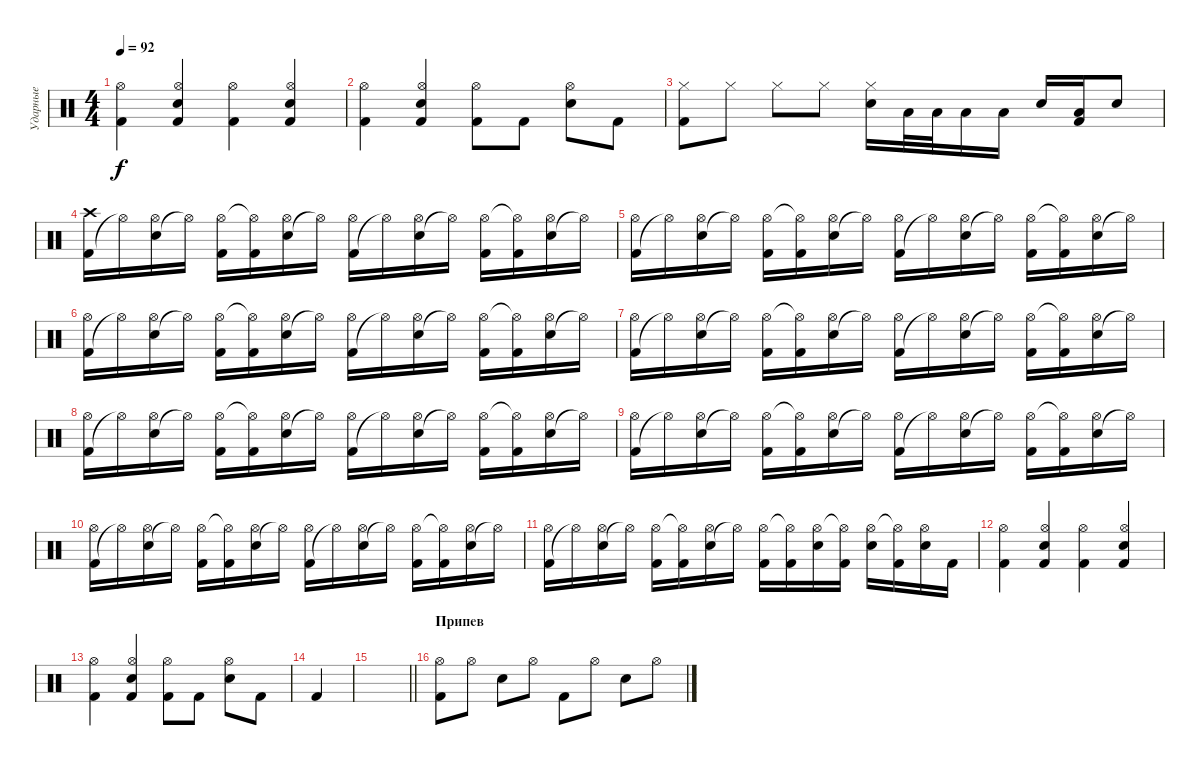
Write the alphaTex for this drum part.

\track ("Ударные" "Ударные") {instrument percussion}
\staff {score}
\articulation defaults
\ts (4 4)
\tempo 92
\clef neutral
\ks c
("Kick (hit) 2" "Hi-Hat (open)").4{dy f} ("Kick (hit) 2" "Snare (hit) 2" "Hi-Hat (open)").4 ("Kick (hit) 2" "Hi-Hat (open)").4 ("Kick (hit) 2" "Snare (hit) 2" "Hi-Hat (open)").4 |
("Kick (hit) 2" "Hi-Hat (open)").4 ("Kick (hit) 2" "Snare (hit) 2" "Hi-Hat (open)").4 ("Kick (hit) 2" "Hi-Hat (open)").8 "Kick (hit) 2".8 ("Snare (hit) 2" "Hi-Hat (open)").8 "Kick (hit) 2".8 |
("Kick (hit) 2" "Hi-Hat (closed)").8 "Hi-Hat (closed)".8 "Hi-Hat (closed)".8 "Hi-Hat (closed)".8 ("Snare (hit) 2" "Hi-Hat (closed)").16 "Low Tom (hit)".32 "Low Tom (hit)".32 "Low Tom (hit)".16 "Low Tom (hit)".16 "Snare (hit) 2".16 ("Kick (hit) 2" "Low Tom (hit)").16 "Snare (hit) 2".8 |
("Kick (hit) 2" "Crash high (hit)").16 "Hi-Hat (open)"{t}.16 ("Snare (hit) 2" "Hi-Hat (open)").16 "Hi-Hat (open)"{t}.16 ("Kick (hit) 2" "Hi-Hat (open)").16 ("Kick (hit) 2" "Hi-Hat (open)"{t}).16 ("Snare (hit) 2" "Hi-Hat (open)").16 "Hi-Hat (open)"{t}.16 ("Kick (hit) 2" "Hi-Hat (open)").16 "Hi-Hat (open)"{t}.16 ("Snare (hit) 2" "Hi-Hat (open)").16 "Hi-Hat (open)"{t}.16 ("Kick (hit) 2" "Hi-Hat (open)").16 ("Kick (hit) 2" "Hi-Hat (open)"{t}).16 ("Snare (hit) 2" "Hi-Hat (open)").16 "Hi-Hat (open)"{t}.16 |
("Kick (hit) 2" "Hi-Hat (open)").16 "Hi-Hat (open)"{t}.16 ("Snare (hit) 2" "Hi-Hat (open)").16 "Hi-Hat (open)"{t}.16 ("Kick (hit) 2" "Hi-Hat (open)").16 ("Kick (hit) 2" "Hi-Hat (open)"{t}).16 ("Snare (hit) 2" "Hi-Hat (open)").16 "Hi-Hat (open)"{t}.16 ("Kick (hit) 2" "Hi-Hat (open)").16 "Hi-Hat (open)"{t}.16 ("Snare (hit) 2" "Hi-Hat (open)").16 "Hi-Hat (open)"{t}.16 ("Kick (hit) 2" "Hi-Hat (open)").16 ("Kick (hit) 2" "Hi-Hat (open)"{t}).16 ("Snare (hit) 2" "Hi-Hat (open)").16 "Hi-Hat (open)"{t}.16 |
("Kick (hit) 2" "Hi-Hat (open)").16 "Hi-Hat (open)"{t}.16 ("Snare (hit) 2" "Hi-Hat (open)").16 "Hi-Hat (open)"{t}.16 ("Kick (hit) 2" "Hi-Hat (open)").16 ("Kick (hit) 2" "Hi-Hat (open)"{t}).16 ("Snare (hit) 2" "Hi-Hat (open)").16 "Hi-Hat (open)"{t}.16 ("Kick (hit) 2" "Hi-Hat (open)").16 "Hi-Hat (open)"{t}.16 ("Snare (hit) 2" "Hi-Hat (open)").16 "Hi-Hat (open)"{t}.16 ("Kick (hit) 2" "Hi-Hat (open)").16 ("Kick (hit) 2" "Hi-Hat (open)"{t}).16 ("Snare (hit) 2" "Hi-Hat (open)").16 "Hi-Hat (open)"{t}.16 |
("Kick (hit) 2" "Hi-Hat (open)").16 "Hi-Hat (open)"{t}.16 ("Snare (hit) 2" "Hi-Hat (open)").16 "Hi-Hat (open)"{t}.16 ("Kick (hit) 2" "Hi-Hat (open)").16 ("Kick (hit) 2" "Hi-Hat (open)"{t}).16 ("Snare (hit) 2" "Hi-Hat (open)").16 "Hi-Hat (open)"{t}.16 ("Kick (hit) 2" "Hi-Hat (open)").16 "Hi-Hat (open)"{t}.16 ("Snare (hit) 2" "Hi-Hat (open)").16 "Hi-Hat (open)"{t}.16 ("Kick (hit) 2" "Hi-Hat (open)").16 ("Kick (hit) 2" "Hi-Hat (open)"{t}).16 ("Snare (hit) 2" "Hi-Hat (open)").16 "Hi-Hat (open)"{t}.16 |
("Kick (hit) 2" "Hi-Hat (open)").16 "Hi-Hat (open)"{t}.16 ("Snare (hit) 2" "Hi-Hat (open)").16 "Hi-Hat (open)"{t}.16 ("Kick (hit) 2" "Hi-Hat (open)").16 ("Kick (hit) 2" "Hi-Hat (open)"{t}).16 ("Snare (hit) 2" "Hi-Hat (open)").16 "Hi-Hat (open)"{t}.16 ("Kick (hit) 2" "Hi-Hat (open)").16 "Hi-Hat (open)"{t}.16 ("Snare (hit) 2" "Hi-Hat (open)").16 "Hi-Hat (open)"{t}.16 ("Kick (hit) 2" "Hi-Hat (open)").16 ("Kick (hit) 2" "Hi-Hat (open)"{t}).16 ("Snare (hit) 2" "Hi-Hat (open)").16 "Hi-Hat (open)"{t}.16 |
("Kick (hit) 2" "Hi-Hat (open)").16 "Hi-Hat (open)"{t}.16 ("Snare (hit) 2" "Hi-Hat (open)").16 "Hi-Hat (open)"{t}.16 ("Kick (hit) 2" "Hi-Hat (open)").16 ("Kick (hit) 2" "Hi-Hat (open)"{t}).16 ("Snare (hit) 2" "Hi-Hat (open)").16 "Hi-Hat (open)"{t}.16 ("Kick (hit) 2" "Hi-Hat (open)").16 "Hi-Hat (open)"{t}.16 ("Snare (hit) 2" "Hi-Hat (open)").16 "Hi-Hat (open)"{t}.16 ("Kick (hit) 2" "Hi-Hat (open)").16 ("Kick (hit) 2" "Hi-Hat (open)"{t}).16 ("Snare (hit) 2" "Hi-Hat (open)").16 "Hi-Hat (open)"{t}.16 |
("Kick (hit) 2" "Hi-Hat (open)").16 "Hi-Hat (open)"{t}.16 ("Snare (hit) 2" "Hi-Hat (open)").16 "Hi-Hat (open)"{t}.16 ("Kick (hit) 2" "Hi-Hat (open)").16 ("Kick (hit) 2" "Hi-Hat (open)"{t}).16 ("Snare (hit) 2" "Hi-Hat (open)").16 "Hi-Hat (open)"{t}.16 ("Kick (hit) 2" "Hi-Hat (open)").16 "Hi-Hat (open)"{t}.16 ("Snare (hit) 2" "Hi-Hat (open)").16 "Hi-Hat (open)"{t}.16 ("Kick (hit) 2" "Hi-Hat (open)").16 ("Kick (hit) 2" "Hi-Hat (open)"{t}).16 ("Snare (hit) 2" "Hi-Hat (open)").16 "Hi-Hat (open)"{t}.16 |
("Kick (hit) 2" "Hi-Hat (open)").16 "Hi-Hat (open)"{t}.16 ("Snare (hit) 2" "Hi-Hat (open)").16 "Hi-Hat (open)"{t}.16 ("Kick (hit) 2" "Hi-Hat (open)").16 ("Kick (hit) 2" "Hi-Hat (open)"{t}).16 ("Snare (hit) 2" "Hi-Hat (open)").16 "Hi-Hat (open)"{t}.16 ("Kick (hit) 2" "Hi-Hat (open)").16 ("Kick (hit) 2" "Hi-Hat (open)"{t}).16 ("Snare (hit) 2" "Hi-Hat (open)").16 ("Kick (hit) 2" "Hi-Hat (open)"{t}).16 ("Snare (hit) 2" "Hi-Hat (open)").16 ("Kick (hit) 2" "Hi-Hat (open)"{t}).16 ("Snare (hit) 2" "Hi-Hat (open)").16 "Kick (hit) 2".16 |
("Kick (hit) 2" "Hi-Hat (open)").4 ("Kick (hit) 2" "Snare (hit) 2" "Hi-Hat (open)").4 ("Kick (hit) 2" "Hi-Hat (open)").4 ("Kick (hit) 2" "Snare (hit) 2" "Hi-Hat (open)").4 |
("Kick (hit) 2" "Hi-Hat (open)").4 ("Kick (hit) 2" "Snare (hit) 2" "Hi-Hat (open)").4 ("Kick (hit) 2" "Hi-Hat (open)").8 "Kick (hit) 2".8 ("Snare (hit) 2" "Hi-Hat (open)").8 "Kick (hit) 2".8 |
"Kick (hit) 2".4 |
\barLineRight lightlight
|
\section ("" "Припев")
("Kick (hit) 2" "Hi-Hat (open)").8 "Hi-Hat (open)".8 "Snare (hit) 2".8 "Hi-Hat (open)".8 "Kick (hit) 2".8 "Hi-Hat (open)".8 "Snare (hit) 2".8 "Hi-Hat (open)".8
